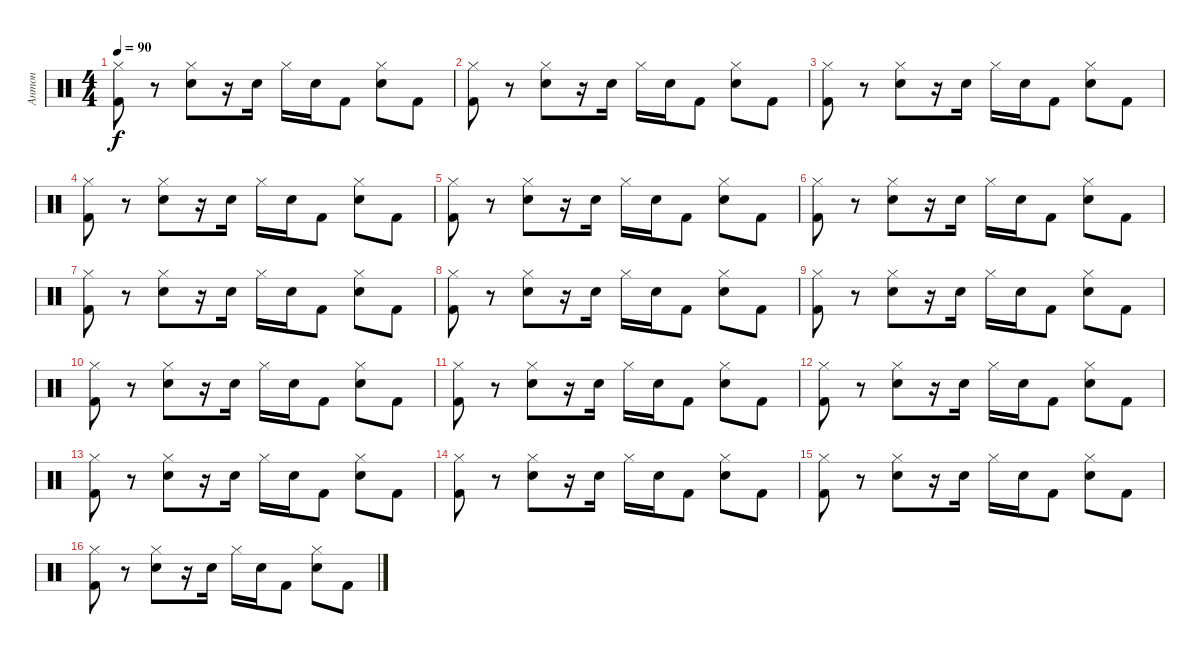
\track ("Антон" "Антон") {instrument percussion}
\staff {score}
\articulation defaults
\ts (4 4)
\tempo 90
\clef neutral
\ks c
("Hi-Hat (closed)" "Kick (hit) 2").8{dy f} r.8 ("Hi-Hat (closed)" "Electric Snare (hit)").8 r.16 "Electric Snare (hit)".16 "Hi-Hat (closed)".16 "Electric Snare (hit)".16 "Kick (hit) 2".8 ("Hi-Hat (closed)" "Electric Snare (hit)").8 "Kick (hit) 2".8 |
("Hi-Hat (closed)" "Kick (hit) 2").8 r.8 ("Hi-Hat (closed)" "Electric Snare (hit)").8 r.16 "Electric Snare (hit)".16 "Hi-Hat (closed)".16 "Electric Snare (hit)".16 "Kick (hit) 2".8 ("Hi-Hat (closed)" "Electric Snare (hit)").8 "Kick (hit) 2".8 |
("Hi-Hat (closed)" "Kick (hit) 2").8 r.8 ("Hi-Hat (closed)" "Electric Snare (hit)").8 r.16 "Electric Snare (hit)".16 "Hi-Hat (closed)".16 "Electric Snare (hit)".16 "Kick (hit) 2".8 ("Hi-Hat (closed)" "Electric Snare (hit)").8 "Kick (hit) 2".8 |
("Hi-Hat (closed)" "Kick (hit) 2").8 r.8 ("Hi-Hat (closed)" "Electric Snare (hit)").8 r.16 "Electric Snare (hit)".16 "Hi-Hat (closed)".16 "Electric Snare (hit)".16 "Kick (hit) 2".8 ("Hi-Hat (closed)" "Electric Snare (hit)").8 "Kick (hit) 2".8 |
("Hi-Hat (closed)" "Kick (hit) 2").8 r.8 ("Hi-Hat (closed)" "Electric Snare (hit)").8 r.16 "Electric Snare (hit)".16 "Hi-Hat (closed)".16 "Electric Snare (hit)".16 "Kick (hit) 2".8 ("Hi-Hat (closed)" "Electric Snare (hit)").8 "Kick (hit) 2".8 |
("Hi-Hat (closed)" "Kick (hit) 2").8 r.8 ("Hi-Hat (closed)" "Electric Snare (hit)").8 r.16 "Electric Snare (hit)".16 "Hi-Hat (closed)".16 "Electric Snare (hit)".16 "Kick (hit) 2".8 ("Hi-Hat (closed)" "Electric Snare (hit)").8 "Kick (hit) 2".8 |
("Hi-Hat (closed)" "Kick (hit) 2").8 r.8 ("Hi-Hat (closed)" "Electric Snare (hit)").8 r.16 "Electric Snare (hit)".16 "Hi-Hat (closed)".16 "Electric Snare (hit)".16 "Kick (hit) 2".8 ("Hi-Hat (closed)" "Electric Snare (hit)").8 "Kick (hit) 2".8 |
("Hi-Hat (closed)" "Kick (hit) 2").8 r.8 ("Hi-Hat (closed)" "Electric Snare (hit)").8 r.16 "Electric Snare (hit)".16 "Hi-Hat (closed)".16 "Electric Snare (hit)".16 "Kick (hit) 2".8 ("Hi-Hat (closed)" "Electric Snare (hit)").8 "Kick (hit) 2".8 |
("Hi-Hat (closed)" "Kick (hit) 2").8 r.8 ("Hi-Hat (closed)" "Electric Snare (hit)").8 r.16 "Electric Snare (hit)".16 "Hi-Hat (closed)".16 "Electric Snare (hit)".16 "Kick (hit) 2".8 ("Hi-Hat (closed)" "Electric Snare (hit)").8 "Kick (hit) 2".8 |
("Hi-Hat (closed)" "Kick (hit) 2").8 r.8 ("Hi-Hat (closed)" "Electric Snare (hit)").8 r.16 "Electric Snare (hit)".16 "Hi-Hat (closed)".16 "Electric Snare (hit)".16 "Kick (hit) 2".8 ("Hi-Hat (closed)" "Electric Snare (hit)").8 "Kick (hit) 2".8 |
("Hi-Hat (closed)" "Kick (hit) 2").8 r.8 ("Hi-Hat (closed)" "Electric Snare (hit)").8 r.16 "Electric Snare (hit)".16 "Hi-Hat (closed)".16 "Electric Snare (hit)".16 "Kick (hit) 2".8 ("Hi-Hat (closed)" "Electric Snare (hit)").8 "Kick (hit) 2".8 |
("Hi-Hat (closed)" "Kick (hit) 2").8 r.8 ("Hi-Hat (closed)" "Electric Snare (hit)").8 r.16 "Electric Snare (hit)".16 "Hi-Hat (closed)".16 "Electric Snare (hit)".16 "Kick (hit) 2".8 ("Hi-Hat (closed)" "Electric Snare (hit)").8 "Kick (hit) 2".8 |
("Hi-Hat (closed)" "Kick (hit) 2").8 r.8 ("Hi-Hat (closed)" "Electric Snare (hit)").8 r.16 "Electric Snare (hit)".16 "Hi-Hat (closed)".16 "Electric Snare (hit)".16 "Kick (hit) 2".8 ("Hi-Hat (closed)" "Electric Snare (hit)").8 "Kick (hit) 2".8 |
("Hi-Hat (closed)" "Kick (hit) 2").8 r.8 ("Hi-Hat (closed)" "Electric Snare (hit)").8 r.16 "Electric Snare (hit)".16 "Hi-Hat (closed)".16 "Electric Snare (hit)".16 "Kick (hit) 2".8 ("Hi-Hat (closed)" "Electric Snare (hit)").8 "Kick (hit) 2".8 |
("Hi-Hat (closed)" "Kick (hit) 2").8 r.8 ("Hi-Hat (closed)" "Electric Snare (hit)").8 r.16 "Electric Snare (hit)".16 "Hi-Hat (closed)".16 "Electric Snare (hit)".16 "Kick (hit) 2".8 ("Hi-Hat (closed)" "Electric Snare (hit)").8 "Kick (hit) 2".8 |
("Hi-Hat (closed)" "Kick (hit) 2").8 r.8 ("Hi-Hat (closed)" "Electric Snare (hit)").8 r.16 "Electric Snare (hit)".16 "Hi-Hat (closed)".16 "Electric Snare (hit)".16 "Kick (hit) 2".8 ("Hi-Hat (closed)" "Electric Snare (hit)").8 "Kick (hit) 2".8
